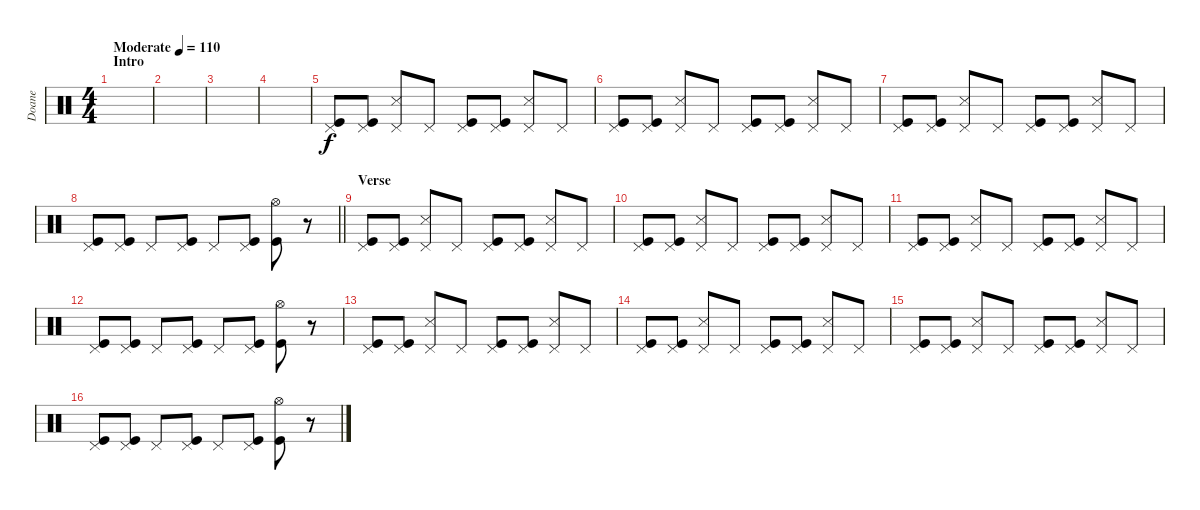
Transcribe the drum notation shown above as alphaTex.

\track ("Doane" "Doane") {instrument percussion}
\staff {score}
\articulation defaults
\ts (4 4)
\section ("" "Intro")
\tempo (110 "Moderate")
\clef neutral
\ks c
|
|
|
|
("Pedal Hi-Hat (hit)" "Kick (hit)").8 ("Pedal Hi-Hat (hit)" "Kick (hit)").8 ("Pedal Hi-Hat (hit)" "Snare (side stick) 3").8 "Pedal Hi-Hat (hit)".8 ("Pedal Hi-Hat (hit)" "Kick (hit)").8 ("Pedal Hi-Hat (hit)" "Kick (hit)").8 ("Pedal Hi-Hat (hit)" "Snare (side stick) 3").8 "Pedal Hi-Hat (hit)".8 |
("Pedal Hi-Hat (hit)" "Kick (hit)").8 ("Pedal Hi-Hat (hit)" "Kick (hit)").8 ("Pedal Hi-Hat (hit)" "Snare (side stick) 3").8 "Pedal Hi-Hat (hit)".8 ("Pedal Hi-Hat (hit)" "Kick (hit)").8 ("Pedal Hi-Hat (hit)" "Kick (hit)").8 ("Pedal Hi-Hat (hit)" "Snare (side stick) 3").8 "Pedal Hi-Hat (hit)".8 |
("Pedal Hi-Hat (hit)" "Kick (hit)").8 ("Pedal Hi-Hat (hit)" "Kick (hit)").8 ("Pedal Hi-Hat (hit)" "Snare (side stick) 3").8 "Pedal Hi-Hat (hit)".8 ("Pedal Hi-Hat (hit)" "Kick (hit)").8 ("Pedal Hi-Hat (hit)" "Kick (hit)").8 ("Pedal Hi-Hat (hit)" "Snare (side stick) 3").8 "Pedal Hi-Hat (hit)".8 |
\barLineRight lightlight
("Pedal Hi-Hat (hit)" "Kick (hit)").8 ("Pedal Hi-Hat (hit)" "Kick (hit)").8 "Pedal Hi-Hat (hit)".8 ("Pedal Hi-Hat (hit)" "Kick (hit)").8 "Pedal Hi-Hat (hit)".8 ("Pedal Hi-Hat (hit)" "Kick (hit)").8 ("Hi-Hat (open)" "Kick (hit)").8 r.8 |
\section ("" "Verse")
("Pedal Hi-Hat (hit)" "Kick (hit)").8 ("Pedal Hi-Hat (hit)" "Kick (hit)").8 ("Pedal Hi-Hat (hit)" "Snare (side stick) 3").8 "Pedal Hi-Hat (hit)".8 ("Pedal Hi-Hat (hit)" "Kick (hit)").8 ("Pedal Hi-Hat (hit)" "Kick (hit)").8 ("Pedal Hi-Hat (hit)" "Snare (side stick) 3").8 "Pedal Hi-Hat (hit)".8 |
("Pedal Hi-Hat (hit)" "Kick (hit)").8 ("Pedal Hi-Hat (hit)" "Kick (hit)").8 ("Pedal Hi-Hat (hit)" "Snare (side stick) 3").8 "Pedal Hi-Hat (hit)".8 ("Pedal Hi-Hat (hit)" "Kick (hit)").8 ("Pedal Hi-Hat (hit)" "Kick (hit)").8 ("Pedal Hi-Hat (hit)" "Snare (side stick) 3").8 "Pedal Hi-Hat (hit)".8 |
("Pedal Hi-Hat (hit)" "Kick (hit)").8 ("Pedal Hi-Hat (hit)" "Kick (hit)").8 ("Pedal Hi-Hat (hit)" "Snare (side stick) 3").8 "Pedal Hi-Hat (hit)".8 ("Pedal Hi-Hat (hit)" "Kick (hit)").8 ("Pedal Hi-Hat (hit)" "Kick (hit)").8 ("Pedal Hi-Hat (hit)" "Snare (side stick) 3").8 "Pedal Hi-Hat (hit)".8 |
("Pedal Hi-Hat (hit)" "Kick (hit)").8 ("Pedal Hi-Hat (hit)" "Kick (hit)").8 "Pedal Hi-Hat (hit)".8 ("Pedal Hi-Hat (hit)" "Kick (hit)").8 "Pedal Hi-Hat (hit)".8 ("Pedal Hi-Hat (hit)" "Kick (hit)").8 ("Hi-Hat (open)" "Kick (hit)").8 r.8 |
("Pedal Hi-Hat (hit)" "Kick (hit)").8 ("Pedal Hi-Hat (hit)" "Kick (hit)").8 ("Pedal Hi-Hat (hit)" "Snare (side stick) 3").8 "Pedal Hi-Hat (hit)".8 ("Pedal Hi-Hat (hit)" "Kick (hit)").8 ("Pedal Hi-Hat (hit)" "Kick (hit)").8 ("Pedal Hi-Hat (hit)" "Snare (side stick) 3").8 "Pedal Hi-Hat (hit)".8 |
("Pedal Hi-Hat (hit)" "Kick (hit)").8 ("Pedal Hi-Hat (hit)" "Kick (hit)").8 ("Pedal Hi-Hat (hit)" "Snare (side stick) 3").8 "Pedal Hi-Hat (hit)".8 ("Pedal Hi-Hat (hit)" "Kick (hit)").8 ("Pedal Hi-Hat (hit)" "Kick (hit)").8 ("Pedal Hi-Hat (hit)" "Snare (side stick) 3").8 "Pedal Hi-Hat (hit)".8 |
("Pedal Hi-Hat (hit)" "Kick (hit)").8 ("Pedal Hi-Hat (hit)" "Kick (hit)").8 ("Pedal Hi-Hat (hit)" "Snare (side stick) 3").8 "Pedal Hi-Hat (hit)".8 ("Pedal Hi-Hat (hit)" "Kick (hit)").8 ("Pedal Hi-Hat (hit)" "Kick (hit)").8 ("Pedal Hi-Hat (hit)" "Snare (side stick) 3").8 "Pedal Hi-Hat (hit)".8 |
("Pedal Hi-Hat (hit)" "Kick (hit)").8 ("Pedal Hi-Hat (hit)" "Kick (hit)").8 "Pedal Hi-Hat (hit)".8 ("Pedal Hi-Hat (hit)" "Kick (hit)").8 "Pedal Hi-Hat (hit)".8 ("Pedal Hi-Hat (hit)" "Kick (hit)").8 ("Hi-Hat (open)" "Kick (hit)").8 r.8
